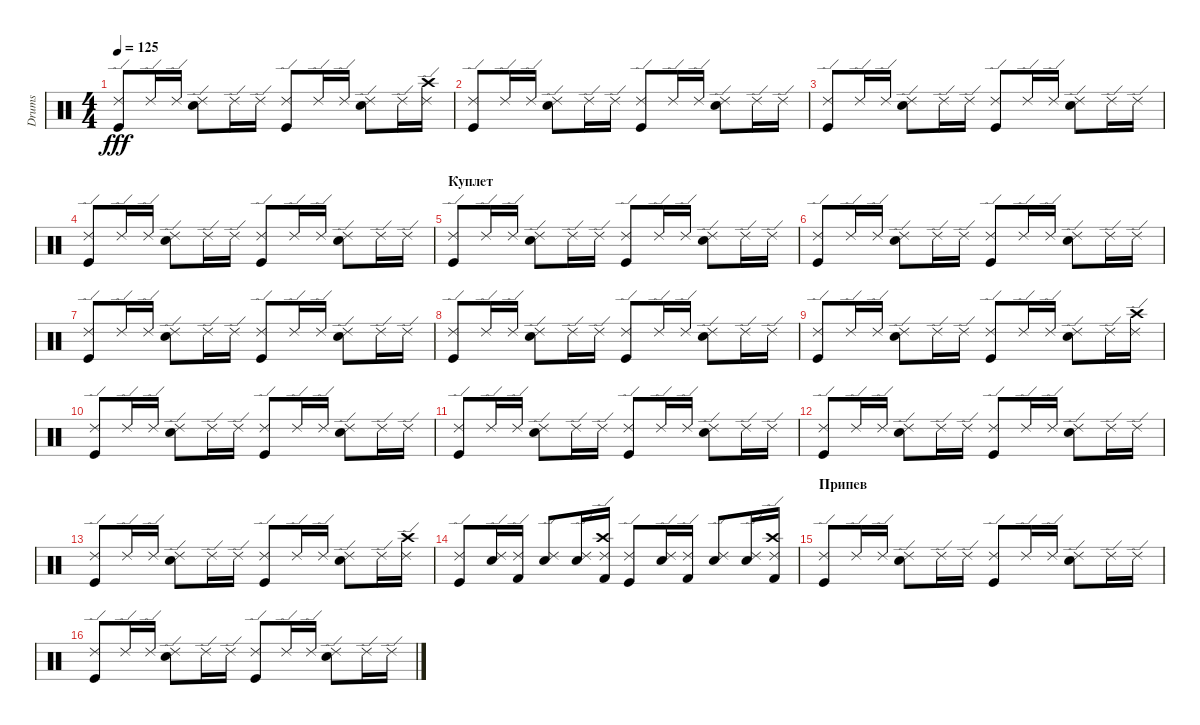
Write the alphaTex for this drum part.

\track ("Drums" "Drums") {instrument percussion}
\staff {score}
\articulation defaults
\ts (4 4)
\tempo 125
\clef neutral
\ks c
("Ride (edge) 2" "Kick (hit)").8{dy fff} "Ride (edge) 2".16 "Ride (edge) 2".16 ("Ride (edge) 2" "Snare (hit) 2").8 "Ride (edge) 2".16 "Ride (edge) 2".16 ("Ride (edge) 2" "Kick (hit)").8 "Ride (edge) 2".16 "Ride (edge) 2".16 ("Ride (edge) 2" "Snare (hit) 2").8 "Ride (edge) 2".16 ("Ride (edge) 2" "Crash high (hit)").16 |
("Ride (edge) 2" "Kick (hit)").8 "Ride (edge) 2".16 "Ride (edge) 2".16 ("Ride (edge) 2" "Snare (hit) 2").8 "Ride (edge) 2".16 "Ride (edge) 2".16 ("Ride (edge) 2" "Kick (hit)").8 "Ride (edge) 2".16 "Ride (edge) 2".16 ("Ride (edge) 2" "Snare (hit) 2").8 "Ride (edge) 2".16 "Ride (edge) 2".16 |
("Ride (edge) 2" "Kick (hit)").8 "Ride (edge) 2".16 "Ride (edge) 2".16 ("Ride (edge) 2" "Snare (hit) 2").8 "Ride (edge) 2".16 "Ride (edge) 2".16 ("Ride (edge) 2" "Kick (hit)").8 "Ride (edge) 2".16 "Ride (edge) 2".16 ("Ride (edge) 2" "Snare (hit) 2").8 "Ride (edge) 2".16 "Ride (edge) 2".16 |
("Ride (edge) 2" "Kick (hit)").8 "Ride (edge) 2".16 "Ride (edge) 2".16 ("Ride (edge) 2" "Snare (hit) 2").8 "Ride (edge) 2".16 "Ride (edge) 2".16 ("Ride (edge) 2" "Kick (hit)").8 "Ride (edge) 2".16 "Ride (edge) 2".16 ("Ride (edge) 2" "Snare (hit) 2").8 "Ride (edge) 2".16 "Ride (edge) 2".16 |
\section ("" "Куплет")
("Ride (edge) 2" "Kick (hit)").8 "Ride (edge) 2".16 "Ride (edge) 2".16 ("Ride (edge) 2" "Snare (hit) 2").8 "Ride (edge) 2".16 "Ride (edge) 2".16 ("Ride (edge) 2" "Kick (hit)").8 "Ride (edge) 2".16 "Ride (edge) 2".16 ("Ride (edge) 2" "Snare (hit) 2").8 "Ride (edge) 2".16 "Ride (edge) 2".16 |
("Ride (edge) 2" "Kick (hit)").8 "Ride (edge) 2".16 "Ride (edge) 2".16 ("Ride (edge) 2" "Snare (hit) 2").8 "Ride (edge) 2".16 "Ride (edge) 2".16 ("Ride (edge) 2" "Kick (hit)").8 "Ride (edge) 2".16 "Ride (edge) 2".16 ("Ride (edge) 2" "Snare (hit) 2").8 "Ride (edge) 2".16 "Ride (edge) 2".16 |
("Ride (edge) 2" "Kick (hit)").8 "Ride (edge) 2".16 "Ride (edge) 2".16 ("Ride (edge) 2" "Snare (hit) 2").8 "Ride (edge) 2".16 "Ride (edge) 2".16 ("Ride (edge) 2" "Kick (hit)").8 "Ride (edge) 2".16 "Ride (edge) 2".16 ("Ride (edge) 2" "Snare (hit) 2").8 "Ride (edge) 2".16 "Ride (edge) 2".16 |
("Ride (edge) 2" "Kick (hit)").8 "Ride (edge) 2".16 "Ride (edge) 2".16 ("Ride (edge) 2" "Snare (hit) 2").8 "Ride (edge) 2".16 "Ride (edge) 2".16 ("Ride (edge) 2" "Kick (hit)").8 "Ride (edge) 2".16 "Ride (edge) 2".16 ("Ride (edge) 2" "Snare (hit) 2").8 "Ride (edge) 2".16 "Ride (edge) 2".16 |
("Ride (edge) 2" "Kick (hit)").8 "Ride (edge) 2".16 "Ride (edge) 2".16 ("Ride (edge) 2" "Snare (hit) 2").8 "Ride (edge) 2".16 "Ride (edge) 2".16 ("Ride (edge) 2" "Kick (hit)").8 "Ride (edge) 2".16 "Ride (edge) 2".16 ("Ride (edge) 2" "Snare (hit) 2").8 "Ride (edge) 2".16 ("Ride (edge) 2" "Crash high (hit)").16 |
("Ride (edge) 2" "Kick (hit)").8 "Ride (edge) 2".16 "Ride (edge) 2".16 ("Ride (edge) 2" "Snare (hit) 2").8 "Ride (edge) 2".16 "Ride (edge) 2".16 ("Ride (edge) 2" "Kick (hit)").8 "Ride (edge) 2".16 "Ride (edge) 2".16 ("Ride (edge) 2" "Snare (hit) 2").8 "Ride (edge) 2".16 "Ride (edge) 2".16 |
("Ride (edge) 2" "Kick (hit)").8 "Ride (edge) 2".16 "Ride (edge) 2".16 ("Ride (edge) 2" "Snare (hit) 2").8 "Ride (edge) 2".16 "Ride (edge) 2".16 ("Ride (edge) 2" "Kick (hit)").8 "Ride (edge) 2".16 "Ride (edge) 2".16 ("Ride (edge) 2" "Snare (hit) 2").8 "Ride (edge) 2".16 "Ride (edge) 2".16 |
("Ride (edge) 2" "Kick (hit)").8 "Ride (edge) 2".16 "Ride (edge) 2".16 ("Ride (edge) 2" "Snare (hit) 2").8 "Ride (edge) 2".16 "Ride (edge) 2".16 ("Ride (edge) 2" "Kick (hit)").8 "Ride (edge) 2".16 "Ride (edge) 2".16 ("Ride (edge) 2" "Snare (hit) 2").8 "Ride (edge) 2".16 "Ride (edge) 2".16 |
("Ride (edge) 2" "Kick (hit)").8 "Ride (edge) 2".16 "Ride (edge) 2".16 ("Ride (edge) 2" "Snare (hit) 2").8 "Ride (edge) 2".16 "Ride (edge) 2".16 ("Ride (edge) 2" "Kick (hit)").8 "Ride (edge) 2".16 "Ride (edge) 2".16 ("Ride (edge) 2" "Snare (hit) 2").8 "Ride (edge) 2".16 ("Ride (edge) 2" "Crash high (hit)").16 |
("Ride (edge) 2" "Kick (hit)").8 ("Ride (edge) 2" "Metronome (bell)").16 ("Ride (edge) 2" "Kick (hit) 2").16 ("Ride (edge) 2" "Snare (hit) 2").8 ("Ride (edge) 2" "Metronome (bell)").16 ("Ride (edge) 2" "Crash high (hit)" "Kick (hit) 2").16 ("Ride (edge) 2" "Kick (hit)").8 ("Ride (edge) 2" "Metronome (bell)").16 ("Ride (edge) 2" "Kick (hit) 2").16 ("Ride (edge) 2" "Snare (hit) 2").8 ("Ride (edge) 2" "Metronome (bell)").16 ("Ride (edge) 2" "Crash high (hit)" "Kick (hit) 2").16 |
\section ("" "Припев")
("Ride (edge) 2" "Kick (hit)").8 "Ride (edge) 2".16 "Ride (edge) 2".16 ("Ride (edge) 2" "Snare (hit) 2").8 "Ride (edge) 2".16 "Ride (edge) 2".16 ("Ride (edge) 2" "Kick (hit)").8 "Ride (edge) 2".16 "Ride (edge) 2".16 ("Ride (edge) 2" "Snare (hit) 2").8 "Ride (edge) 2".16 "Ride (edge) 2".16 |
("Ride (edge) 2" "Kick (hit)").8 "Ride (edge) 2".16 "Ride (edge) 2".16 ("Ride (edge) 2" "Snare (hit) 2").8 "Ride (edge) 2".16 "Ride (edge) 2".16 ("Ride (edge) 2" "Kick (hit)").8 "Ride (edge) 2".16 "Ride (edge) 2".16 ("Ride (edge) 2" "Snare (hit) 2").8 "Ride (edge) 2".16 "Ride (edge) 2".16
